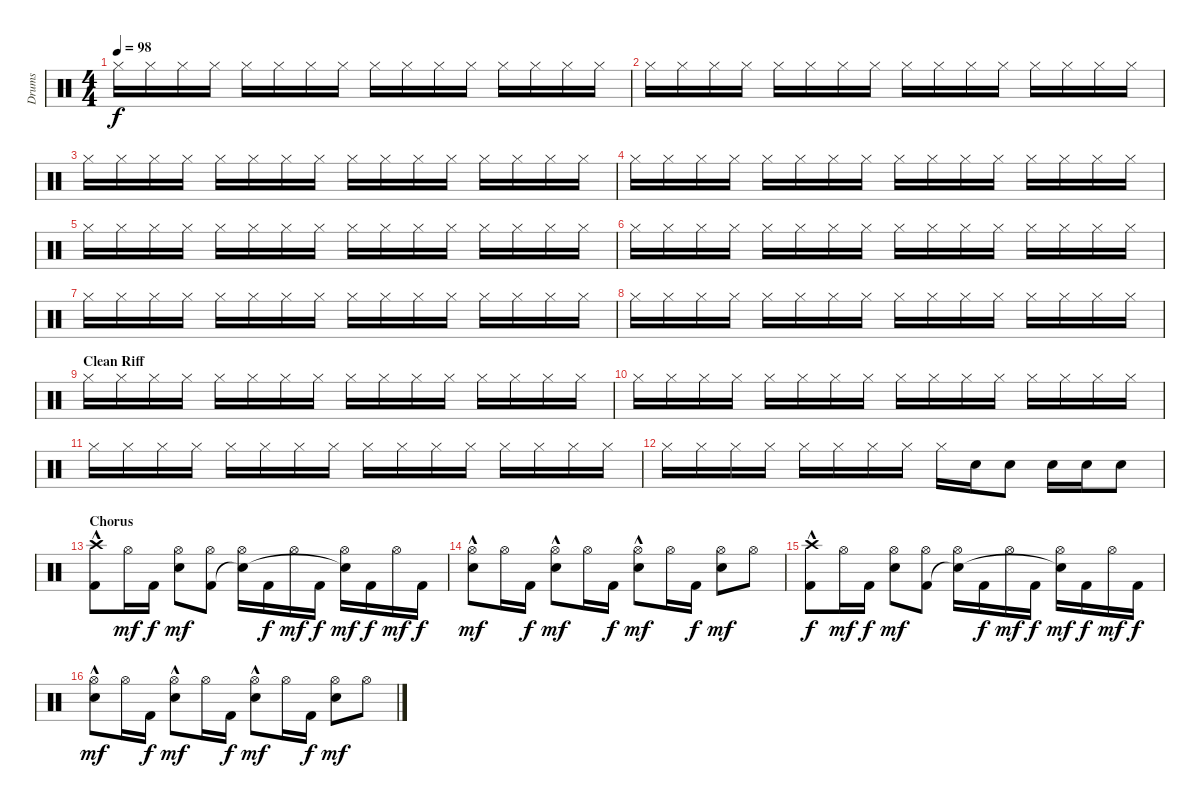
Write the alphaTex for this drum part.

\track ("Drums" "Drums") {instrument percussion}
\staff {score}
\articulation defaults
\ts (4 4)
\tempo 98
\clef neutral
\ks c "Hi-Hat (closed)".16{dy f} "Hi-Hat (closed)".16 "Hi-Hat (closed)".16 "Hi-Hat (closed)".16 "Hi-Hat (closed)".16 "Hi-Hat (closed)".16 "Hi-Hat (closed)".16 "Hi-Hat (closed)".16 "Hi-Hat (closed)".16 "Hi-Hat (closed)".16 "Hi-Hat (closed)".16 "Hi-Hat (closed)".16 "Hi-Hat (closed)".16 "Hi-Hat (closed)".16 "Hi-Hat (closed)".16 "Hi-Hat (closed)".16
|
"Hi-Hat (closed)".16 "Hi-Hat (closed)".16 "Hi-Hat (closed)".16 "Hi-Hat (closed)".16 "Hi-Hat (closed)".16 "Hi-Hat (closed)".16 "Hi-Hat (closed)".16 "Hi-Hat (closed)".16 "Hi-Hat (closed)".16 "Hi-Hat (closed)".16 "Hi-Hat (closed)".16 "Hi-Hat (closed)".16 "Hi-Hat (closed)".16 "Hi-Hat (closed)".16 "Hi-Hat (closed)".16 "Hi-Hat (closed)".16 |
"Hi-Hat (closed)".16 "Hi-Hat (closed)".16 "Hi-Hat (closed)".16 "Hi-Hat (closed)".16 "Hi-Hat (closed)".16 "Hi-Hat (closed)".16 "Hi-Hat (closed)".16 "Hi-Hat (closed)".16 "Hi-Hat (closed)".16 "Hi-Hat (closed)".16 "Hi-Hat (closed)".16 "Hi-Hat (closed)".16 "Hi-Hat (closed)".16 "Hi-Hat (closed)".16 "Hi-Hat (closed)".16 "Hi-Hat (closed)".16 |
"Hi-Hat (closed)".16 "Hi-Hat (closed)".16 "Hi-Hat (closed)".16 "Hi-Hat (closed)".16 "Hi-Hat (closed)".16 "Hi-Hat (closed)".16 "Hi-Hat (closed)".16 "Hi-Hat (closed)".16 "Hi-Hat (closed)".16 "Hi-Hat (closed)".16 "Hi-Hat (closed)".16 "Hi-Hat (closed)".16 "Hi-Hat (closed)".16 "Hi-Hat (closed)".16 "Hi-Hat (closed)".16 "Hi-Hat (closed)".16 |
"Hi-Hat (closed)".16 "Hi-Hat (closed)".16 "Hi-Hat (closed)".16 "Hi-Hat (closed)".16 "Hi-Hat (closed)".16 "Hi-Hat (closed)".16 "Hi-Hat (closed)".16 "Hi-Hat (closed)".16 "Hi-Hat (closed)".16 "Hi-Hat (closed)".16 "Hi-Hat (closed)".16 "Hi-Hat (closed)".16 "Hi-Hat (closed)".16 "Hi-Hat (closed)".16 "Hi-Hat (closed)".16 "Hi-Hat (closed)".16 |
"Hi-Hat (closed)".16 "Hi-Hat (closed)".16 "Hi-Hat (closed)".16 "Hi-Hat (closed)".16 "Hi-Hat (closed)".16 "Hi-Hat (closed)".16 "Hi-Hat (closed)".16 "Hi-Hat (closed)".16 "Hi-Hat (closed)".16 "Hi-Hat (closed)".16 "Hi-Hat (closed)".16 "Hi-Hat (closed)".16 "Hi-Hat (closed)".16 "Hi-Hat (closed)".16 "Hi-Hat (closed)".16 "Hi-Hat (closed)".16 |
"Hi-Hat (closed)".16 "Hi-Hat (closed)".16 "Hi-Hat (closed)".16 "Hi-Hat (closed)".16 "Hi-Hat (closed)".16 "Hi-Hat (closed)".16 "Hi-Hat (closed)".16 "Hi-Hat (closed)".16 "Hi-Hat (closed)".16 "Hi-Hat (closed)".16 "Hi-Hat (closed)".16 "Hi-Hat (closed)".16 "Hi-Hat (closed)".16 "Hi-Hat (closed)".16 "Hi-Hat (closed)".16 "Hi-Hat (closed)".16 |
"Hi-Hat (closed)".16 "Hi-Hat (closed)".16 "Hi-Hat (closed)".16 "Hi-Hat (closed)".16 "Hi-Hat (closed)".16 "Hi-Hat (closed)".16 "Hi-Hat (closed)".16 "Hi-Hat (closed)".16 "Hi-Hat (closed)".16 "Hi-Hat (closed)".16 "Hi-Hat (closed)".16 "Hi-Hat (closed)".16 "Hi-Hat (closed)".16 "Hi-Hat (closed)".16 "Hi-Hat (closed)".16 "Hi-Hat (closed)".16 |
\section ("" "Clean Riff")
"Hi-Hat (closed)".16 "Hi-Hat (closed)".16 "Hi-Hat (closed)".16 "Hi-Hat (closed)".16 "Hi-Hat (closed)".16 "Hi-Hat (closed)".16 "Hi-Hat (closed)".16 "Hi-Hat (closed)".16 "Hi-Hat (closed)".16 "Hi-Hat (closed)".16 "Hi-Hat (closed)".16 "Hi-Hat (closed)".16 "Hi-Hat (closed)".16 "Hi-Hat (closed)".16 "Hi-Hat (closed)".16 "Hi-Hat (closed)".16 |
"Hi-Hat (closed)".16 "Hi-Hat (closed)".16 "Hi-Hat (closed)".16 "Hi-Hat (closed)".16 "Hi-Hat (closed)".16 "Hi-Hat (closed)".16 "Hi-Hat (closed)".16 "Hi-Hat (closed)".16 "Hi-Hat (closed)".16 "Hi-Hat (closed)".16 "Hi-Hat (closed)".16 "Hi-Hat (closed)".16 "Hi-Hat (closed)".16 "Hi-Hat (closed)".16 "Hi-Hat (closed)".16 "Hi-Hat (closed)".16 |
"Hi-Hat (closed)".16 "Hi-Hat (closed)".16 "Hi-Hat (closed)".16 "Hi-Hat (closed)".16 "Hi-Hat (closed)".16 "Hi-Hat (closed)".16 "Hi-Hat (closed)".16 "Hi-Hat (closed)".16 "Hi-Hat (closed)".16 "Hi-Hat (closed)".16 "Hi-Hat (closed)".16 "Hi-Hat (closed)".16 "Hi-Hat (closed)".16 "Hi-Hat (closed)".16 "Hi-Hat (closed)".16 "Hi-Hat (closed)".16 |
"Hi-Hat (closed)".16 "Hi-Hat (closed)".16 "Hi-Hat (closed)".16 "Hi-Hat (closed)".16 "Hi-Hat (closed)".16 "Hi-Hat (closed)".16 "Hi-Hat (closed)".16 "Hi-Hat (closed)".16 "Hi-Hat (closed)".16 "Electric Snare (hit)".16 "Electric Snare (hit)".8 "Electric Snare (hit)".16 "Electric Snare (hit)".16 "Electric Snare (hit)".8 |
\section ("" "Chorus")
("Crash high (hit)" "Kick (hit) 2"{hac}).8 "Hi-Hat (open)".16{dy mf} "Kick (hit) 2".16{dy f} ("Hi-Hat (open)" "Electric Snare (hit)").8{dy mf} ("Hi-Hat (open)" "Kick (hit) 2").8 ("Hi-Hat (open)" "Snare (hit)"{t}).16 "Kick (hit) 2".16{dy f} "Hi-Hat (open)".16{dy mf} "Kick (hit) 2".16{dy f} ("Hi-Hat (open)" "Snare (hit)"{t}).16{dy mf} "Kick (hit) 2".16{dy f} "Hi-Hat (open)".16{dy mf} "Kick (hit) 2".16{dy f} |
("Hi-Hat (open)" "Electric Snare (hit)"{hac}).8{dy mf} "Hi-Hat (open)".16 "Kick (hit) 2".16{dy f} ("Hi-Hat (open)" "Electric Snare (hit)"{hac}).8{dy mf} "Hi-Hat (open)".16 "Kick (hit) 2".16{dy f} ("Hi-Hat (open)" "Electric Snare (hit)"{hac}).8{dy mf} "Hi-Hat (open)".16 "Kick (hit) 2".16{dy f} ("Hi-Hat (open)" "Electric Snare (hit)").8{dy mf} "Hi-Hat (open)".8 |
("Crash high (hit)" "Kick (hit) 2"{hac}).8{dy f} "Hi-Hat (open)".16{dy mf} "Kick (hit) 2".16{dy f} ("Hi-Hat (open)" "Electric Snare (hit)").8{dy mf} ("Hi-Hat (open)" "Kick (hit) 2").8 ("Hi-Hat (open)" "Snare (hit)"{t}).16 "Kick (hit) 2".16{dy f} "Hi-Hat (open)".16{dy mf} "Kick (hit) 2".16{dy f} ("Hi-Hat (open)" "Snare (hit)"{t}).16{dy mf} "Kick (hit) 2".16{dy f} "Hi-Hat (open)".16{dy mf} "Kick (hit) 2".16{dy f} |
("Hi-Hat (open)" "Electric Snare (hit)"{hac}).8{dy mf} "Hi-Hat (open)".16 "Kick (hit) 2".16{dy f} ("Hi-Hat (open)" "Electric Snare (hit)"{hac}).8{dy mf} "Hi-Hat (open)".16 "Kick (hit) 2".16{dy f} ("Hi-Hat (open)" "Electric Snare (hit)"{hac}).8{dy mf} "Hi-Hat (open)".16 "Kick (hit) 2".16{dy f} ("Hi-Hat (open)" "Electric Snare (hit)").8{dy mf} "Hi-Hat (open)".8
